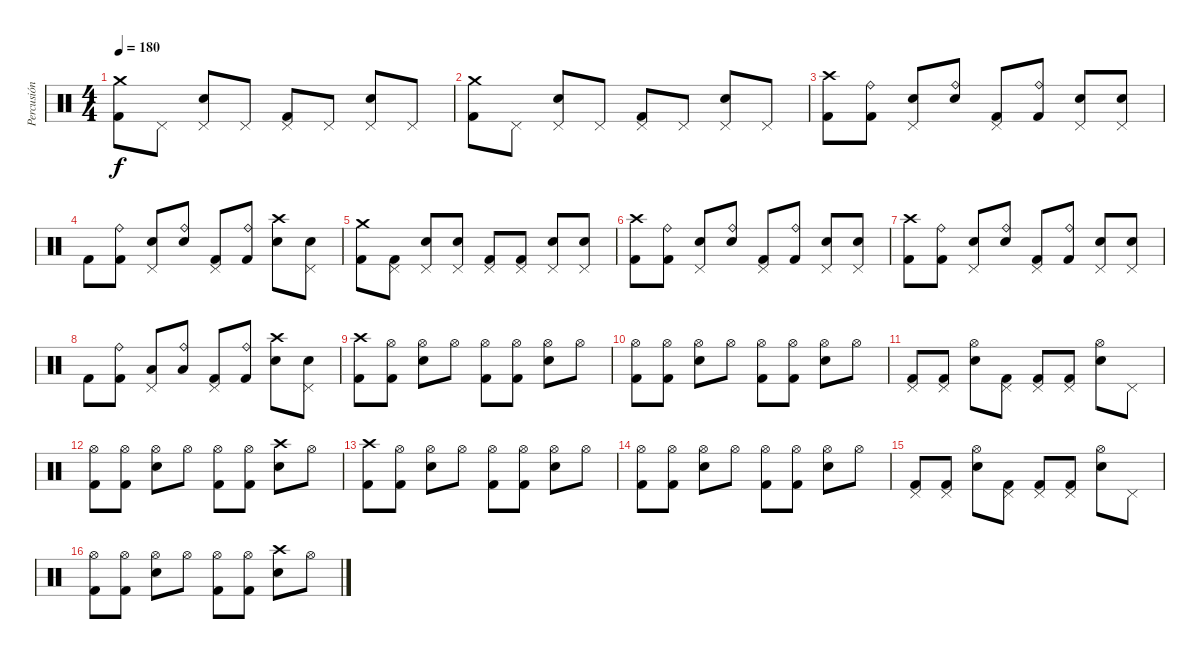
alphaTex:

\track ("Percusión" "Percusión") {instrument percussion}
\staff {score}
\articulation defaults
\ts (4 4)
\tempo 180
\clef neutral
\ks c
("Crash medium (hit)" "Kick (hit) 2").8{dy f} "Pedal Hi-Hat (hit)".8 ("Pedal Hi-Hat (hit)" "Snare (hit) 2").8 "Pedal Hi-Hat (hit)".8 ("Pedal Hi-Hat (hit)" "Kick (hit) 2").8 "Pedal Hi-Hat (hit)".8 ("Pedal Hi-Hat (hit)" "Snare (hit) 2").8 "Pedal Hi-Hat (hit)".8 |
("Crash medium (hit)" "Kick (hit) 2").8 "Pedal Hi-Hat (hit)".8 ("Pedal Hi-Hat (hit)" "Snare (hit) 2").8 "Pedal Hi-Hat (hit)".8 ("Pedal Hi-Hat (hit)" "Kick (hit) 2").8 "Pedal Hi-Hat (hit)".8 ("Pedal Hi-Hat (hit)" "Snare (hit) 2").8 "Pedal Hi-Hat (hit)".8 |
("Crash high (hit)" "Kick (hit) 2").8 ("Ride (bell)" "Kick (hit) 2").8 ("Pedal Hi-Hat (hit)" "Snare (hit) 2").8 ("Ride (bell)" "Snare (hit) 2").8 ("Pedal Hi-Hat (hit)" "Kick (hit) 2").8 ("Ride (bell)" "Kick (hit) 2").8 ("Pedal Hi-Hat (hit)" "Snare (hit) 2").8 ("Pedal Hi-Hat (hit)" "Snare (hit) 2").8 |
"Kick (hit) 2".8 ("Ride (bell)" "Kick (hit) 2").8 ("Pedal Hi-Hat (hit)" "Snare (hit) 2").8 ("Ride (bell)" "Snare (hit) 2").8 ("Pedal Hi-Hat (hit)" "Kick (hit) 2").8 ("Ride (bell)" "Kick (hit) 2").8 ("Crash high (hit)" "Snare (hit) 2").8 ("Pedal Hi-Hat (hit)" "Snare (hit) 2").8 |
("Crash medium (hit)" "Kick (hit) 2").8 ("Pedal Hi-Hat (hit)" "Kick (hit) 2").8 ("Pedal Hi-Hat (hit)" "Snare (hit) 2").8 ("Pedal Hi-Hat (hit)" "Snare (hit) 2").8 ("Pedal Hi-Hat (hit)" "Kick (hit) 2").8 ("Pedal Hi-Hat (hit)" "Kick (hit) 2").8 ("Pedal Hi-Hat (hit)" "Snare (hit) 2").8 ("Pedal Hi-Hat (hit)" "Snare (hit) 2").8 |
("Crash high (hit)" "Kick (hit) 2").8 ("Ride (bell)" "Kick (hit) 2").8 ("Pedal Hi-Hat (hit)" "Snare (hit) 2").8 ("Ride (bell)" "Snare (hit) 2").8 ("Pedal Hi-Hat (hit)" "Kick (hit) 2").8 ("Ride (bell)" "Kick (hit) 2").8 ("Pedal Hi-Hat (hit)" "Snare (hit) 2").8 ("Pedal Hi-Hat (hit)" "Snare (hit) 2").8 |
("Crash high (hit)" "Kick (hit) 2").8 ("Ride (bell)" "Kick (hit) 2").8 ("Pedal Hi-Hat (hit)" "Snare (hit) 2").8 ("Ride (bell)" "Snare (hit) 2").8 ("Pedal Hi-Hat (hit)" "Kick (hit) 2").8 ("Ride (bell)" "Kick (hit) 2").8 ("Pedal Hi-Hat (hit)" "Snare (hit) 2").8 ("Pedal Hi-Hat (hit)" "Snare (hit) 2").8 |
"Kick (hit) 2".8 ("Ride (bell)" "Kick (hit) 2").8 ("Pedal Hi-Hat (hit)" "Low Floor Tom (hit)").8 ("Ride (bell)" "Low Floor Tom (hit)").8 ("Pedal Hi-Hat (hit)" "Kick (hit) 2").8 ("Ride (bell)" "Kick (hit) 2").8 ("Crash high (hit)" "Snare (hit) 2").8 ("Pedal Hi-Hat (hit)" "Snare (hit) 2").8 |
("Crash high (hit)" "Kick (hit) 2").8 ("Hi-Hat (open)" "Kick (hit) 2").8 ("Hi-Hat (open)" "Snare (hit) 2").8 "Hi-Hat (open)".8 ("Hi-Hat (open)" "Kick (hit) 2").8 ("Hi-Hat (open)" "Kick (hit) 2").8 ("Hi-Hat (open)" "Snare (hit) 2").8 "Hi-Hat (open)".8 |
("Hi-Hat (open)" "Kick (hit) 2").8 ("Hi-Hat (open)" "Kick (hit) 2").8 ("Hi-Hat (open)" "Snare (hit) 2").8 "Hi-Hat (open)".8 ("Hi-Hat (open)" "Kick (hit) 2").8 ("Hi-Hat (open)" "Kick (hit) 2").8 ("Hi-Hat (open)" "Snare (hit) 2").8 "Hi-Hat (open)".8 |
("Pedal Hi-Hat (hit)" "Kick (hit) 2").8 ("Pedal Hi-Hat (hit)" "Kick (hit) 2").8 ("Hi-Hat (open)" "Snare (hit) 2").8 ("Pedal Hi-Hat (hit)" "Kick (hit) 2").8 ("Pedal Hi-Hat (hit)" "Kick (hit) 2").8 ("Pedal Hi-Hat (hit)" "Kick (hit) 2").8 ("Hi-Hat (open)" "Snare (hit) 2").8 "Pedal Hi-Hat (hit)".8 |
("Hi-Hat (open)" "Kick (hit) 2").8 ("Hi-Hat (open)" "Kick (hit) 2").8 ("Hi-Hat (open)" "Snare (hit) 2").8 "Hi-Hat (open)".8 ("Hi-Hat (open)" "Kick (hit) 2").8 ("Hi-Hat (open)" "Kick (hit) 2").8 ("Crash high (hit)" "Snare (hit) 2").8 "Hi-Hat (open)".8 |
("Crash high (hit)" "Kick (hit) 2").8 ("Hi-Hat (open)" "Kick (hit) 2").8 ("Hi-Hat (open)" "Snare (hit) 2").8 "Hi-Hat (open)".8 ("Hi-Hat (open)" "Kick (hit) 2").8 ("Hi-Hat (open)" "Kick (hit) 2").8 ("Hi-Hat (open)" "Snare (hit) 2").8 "Hi-Hat (open)".8 |
("Hi-Hat (open)" "Kick (hit) 2").8 ("Hi-Hat (open)" "Kick (hit) 2").8 ("Hi-Hat (open)" "Snare (hit) 2").8 "Hi-Hat (open)".8 ("Hi-Hat (open)" "Kick (hit) 2").8 ("Hi-Hat (open)" "Kick (hit) 2").8 ("Hi-Hat (open)" "Snare (hit) 2").8 "Hi-Hat (open)".8 |
("Pedal Hi-Hat (hit)" "Kick (hit) 2").8 ("Pedal Hi-Hat (hit)" "Kick (hit) 2").8 ("Hi-Hat (open)" "Snare (hit) 2").8 ("Pedal Hi-Hat (hit)" "Kick (hit) 2").8 ("Pedal Hi-Hat (hit)" "Kick (hit) 2").8 ("Pedal Hi-Hat (hit)" "Kick (hit) 2").8 ("Hi-Hat (open)" "Snare (hit) 2").8 "Pedal Hi-Hat (hit)".8 |
("Hi-Hat (open)" "Kick (hit) 2").8 ("Hi-Hat (open)" "Kick (hit) 2").8 ("Hi-Hat (open)" "Snare (hit) 2").8 "Hi-Hat (open)".8 ("Hi-Hat (open)" "Kick (hit) 2").8 ("Hi-Hat (open)" "Kick (hit) 2").8 ("Crash high (hit)" "Snare (hit) 2").8 "Hi-Hat (open)".8
